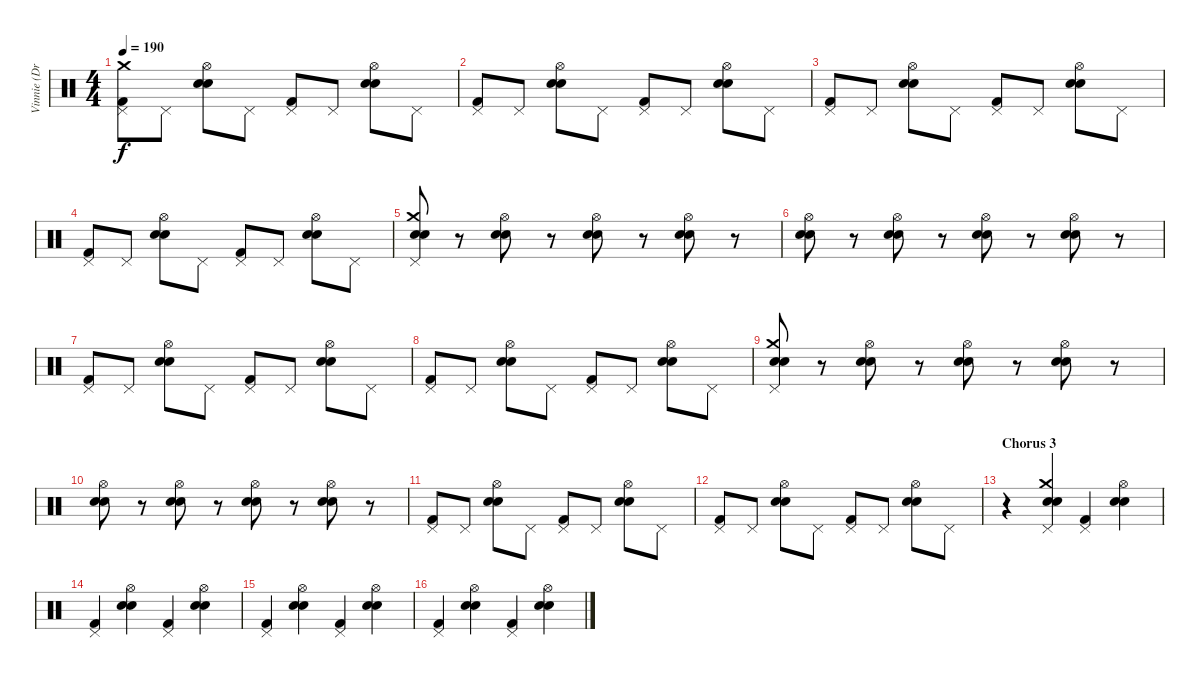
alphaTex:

\track ("Vinnie (Drums)" "Vinnie (Dr") {instrument percussion}
\staff {score}
\articulation defaults
\ts (4 4)
\tempo 190
\clef neutral
\ks c
("Kick (hit) 2" "Pedal Hi-Hat (hit)" "Crash medium (hit)").8{dy f} "Pedal Hi-Hat (hit)".8 ("Snare (hit) 2" "Electric Snare (hit)" "Hi-Hat (open)").8 "Pedal Hi-Hat (hit)".8 ("Kick (hit) 2" "Pedal Hi-Hat (hit)").8 "Pedal Hi-Hat (hit)".8 ("Snare (hit) 2" "Electric Snare (hit)" "Hi-Hat (open)").8 "Pedal Hi-Hat (hit)".8 |
("Kick (hit) 2" "Pedal Hi-Hat (hit)").8 "Pedal Hi-Hat (hit)".8 ("Snare (hit) 2" "Electric Snare (hit)" "Hi-Hat (open)").8 "Pedal Hi-Hat (hit)".8 ("Kick (hit) 2" "Pedal Hi-Hat (hit)").8 "Pedal Hi-Hat (hit)".8 ("Snare (hit) 2" "Electric Snare (hit)" "Hi-Hat (open)").8 "Pedal Hi-Hat (hit)".8 |
("Kick (hit) 2" "Pedal Hi-Hat (hit)").8 "Pedal Hi-Hat (hit)".8 ("Snare (hit) 2" "Electric Snare (hit)" "Hi-Hat (open)").8 "Pedal Hi-Hat (hit)".8 ("Kick (hit) 2" "Pedal Hi-Hat (hit)").8 "Pedal Hi-Hat (hit)".8 ("Snare (hit) 2" "Electric Snare (hit)" "Hi-Hat (open)").8 "Pedal Hi-Hat (hit)".8 |
("Kick (hit) 2" "Pedal Hi-Hat (hit)").8 "Pedal Hi-Hat (hit)".8 ("Snare (hit) 2" "Electric Snare (hit)" "Hi-Hat (open)").8 "Pedal Hi-Hat (hit)".8 ("Kick (hit) 2" "Pedal Hi-Hat (hit)").8 "Pedal Hi-Hat (hit)".8 ("Snare (hit) 2" "Electric Snare (hit)" "Hi-Hat (open)").8 "Pedal Hi-Hat (hit)".8 |
("Snare (hit) 2" "Electric Snare (hit)" "Pedal Hi-Hat (hit)" "Crash medium (hit)").8 r.8 ("Snare (hit) 2" "Electric Snare (hit)" "Hi-Hat (open)").8 r.8 ("Snare (hit) 2" "Electric Snare (hit)" "Hi-Hat (open)").8 r.8 ("Snare (hit) 2" "Electric Snare (hit)" "Hi-Hat (open)").8 r.8 |
("Snare (hit) 2" "Electric Snare (hit)" "Hi-Hat (open)").8 r.8 ("Snare (hit) 2" "Electric Snare (hit)" "Hi-Hat (open)").8 r.8 ("Snare (hit) 2" "Electric Snare (hit)" "Hi-Hat (open)").8 r.8 ("Snare (hit) 2" "Electric Snare (hit)" "Hi-Hat (open)").8 r.8 |
("Kick (hit) 2" "Pedal Hi-Hat (hit)").8 "Pedal Hi-Hat (hit)".8 ("Snare (hit) 2" "Electric Snare (hit)" "Hi-Hat (open)").8 "Pedal Hi-Hat (hit)".8 ("Kick (hit) 2" "Pedal Hi-Hat (hit)").8 "Pedal Hi-Hat (hit)".8 ("Snare (hit) 2" "Electric Snare (hit)" "Hi-Hat (open)").8 "Pedal Hi-Hat (hit)".8 |
("Kick (hit) 2" "Pedal Hi-Hat (hit)").8 "Pedal Hi-Hat (hit)".8 ("Snare (hit) 2" "Electric Snare (hit)" "Hi-Hat (open)").8 "Pedal Hi-Hat (hit)".8 ("Kick (hit) 2" "Pedal Hi-Hat (hit)").8 "Pedal Hi-Hat (hit)".8 ("Snare (hit) 2" "Electric Snare (hit)" "Hi-Hat (open)").8 "Pedal Hi-Hat (hit)".8 |
("Snare (hit) 2" "Electric Snare (hit)" "Pedal Hi-Hat (hit)" "Crash medium (hit)").8 r.8 ("Snare (hit) 2" "Electric Snare (hit)" "Hi-Hat (open)").8 r.8 ("Snare (hit) 2" "Electric Snare (hit)" "Hi-Hat (open)").8 r.8 ("Snare (hit) 2" "Electric Snare (hit)" "Hi-Hat (open)").8 r.8 |
("Snare (hit) 2" "Electric Snare (hit)" "Hi-Hat (open)").8 r.8 ("Snare (hit) 2" "Electric Snare (hit)" "Hi-Hat (open)").8 r.8 ("Snare (hit) 2" "Electric Snare (hit)" "Hi-Hat (open)").8 r.8 ("Snare (hit) 2" "Electric Snare (hit)" "Hi-Hat (open)").8 r.8 |
("Kick (hit) 2" "Pedal Hi-Hat (hit)").8 "Pedal Hi-Hat (hit)".8 ("Snare (hit) 2" "Electric Snare (hit)" "Hi-Hat (open)").8 "Pedal Hi-Hat (hit)".8 ("Kick (hit) 2" "Pedal Hi-Hat (hit)").8 "Pedal Hi-Hat (hit)".8 ("Snare (hit) 2" "Electric Snare (hit)" "Hi-Hat (open)").8 "Pedal Hi-Hat (hit)".8 |
("Kick (hit) 2" "Pedal Hi-Hat (hit)").8 "Pedal Hi-Hat (hit)".8 ("Snare (hit) 2" "Electric Snare (hit)" "Hi-Hat (open)").8 "Pedal Hi-Hat (hit)".8 ("Kick (hit) 2" "Pedal Hi-Hat (hit)").8 "Pedal Hi-Hat (hit)".8 ("Snare (hit) 2" "Electric Snare (hit)" "Hi-Hat (open)").8 "Pedal Hi-Hat (hit)".8 |
\section ("" "Chorus 3")
r.4 ("Snare (hit) 2" "Electric Snare (hit)" "Pedal Hi-Hat (hit)" "Crash medium (hit)").4 ("Kick (hit) 2" "Pedal Hi-Hat (hit)").4 ("Snare (hit) 2" "Electric Snare (hit)" "Hi-Hat (open)").4 |
("Kick (hit) 2" "Pedal Hi-Hat (hit)").4 ("Snare (hit) 2" "Electric Snare (hit)" "Hi-Hat (open)").4 ("Kick (hit) 2" "Pedal Hi-Hat (hit)").4 ("Snare (hit) 2" "Electric Snare (hit)" "Hi-Hat (open)").4 |
("Kick (hit) 2" "Pedal Hi-Hat (hit)").4 ("Snare (hit) 2" "Electric Snare (hit)" "Hi-Hat (open)").4 ("Kick (hit) 2" "Pedal Hi-Hat (hit)").4 ("Snare (hit) 2" "Electric Snare (hit)" "Hi-Hat (open)").4 |
("Kick (hit) 2" "Pedal Hi-Hat (hit)").4 ("Snare (hit) 2" "Electric Snare (hit)" "Hi-Hat (open)").4 ("Kick (hit) 2" "Pedal Hi-Hat (hit)").4 ("Snare (hit) 2" "Electric Snare (hit)" "Hi-Hat (open)").4
